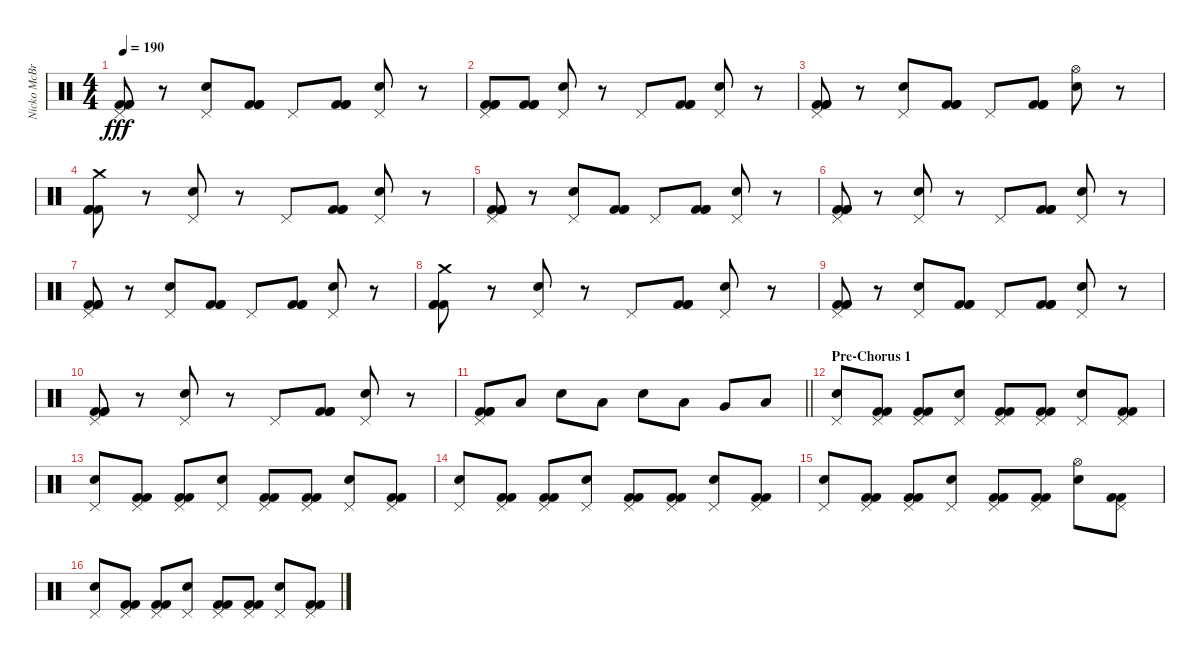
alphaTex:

\track ("Nicko McBrain" "Nicko McBr") {instrument percussion}
\staff {score}
\articulation defaults
\ts (4 4)
\tempo 190
\clef neutral
\ks c
("Pedal Hi-Hat (hit)" "Kick (hit) 2" "Kick (hit) 2" "Kick (hit) 2").8{dy fff} r.8 ("Snare (hit) 2" "Pedal Hi-Hat (hit)").8 ("Kick (hit) 2" "Kick (hit) 2" "Kick (hit) 2").8 "Pedal Hi-Hat (hit)".8 ("Kick (hit) 2" "Kick (hit) 2" "Kick (hit) 2").8 ("Snare (hit) 2" "Pedal Hi-Hat (hit)").8 r.8 |
("Pedal Hi-Hat (hit)" "Kick (hit) 2" "Kick (hit) 2" "Kick (hit) 2").8 ("Kick (hit) 2" "Kick (hit) 2" "Kick (hit) 2").8 ("Snare (hit) 2" "Pedal Hi-Hat (hit)").8 r.8 "Pedal Hi-Hat (hit)".8 ("Kick (hit) 2" "Kick (hit) 2" "Kick (hit) 2").8 ("Snare (hit) 2" "Pedal Hi-Hat (hit)").8 r.8 |
("Pedal Hi-Hat (hit)" "Kick (hit) 2" "Kick (hit) 2" "Kick (hit) 2").8 r.8 ("Snare (hit) 2" "Pedal Hi-Hat (hit)").8 ("Kick (hit) 2" "Kick (hit) 2" "Kick (hit) 2").8 "Pedal Hi-Hat (hit)".8 ("Kick (hit) 2" "Kick (hit) 2" "Kick (hit) 2").8 ("Snare (hit) 2" "Hi-Hat (open)").8 r.8 |
("Crash medium (hit)" "Kick (hit) 2" "Kick (hit) 2" "Kick (hit) 2").8 r.8 ("Snare (hit) 2" "Pedal Hi-Hat (hit)").8 r.8 "Pedal Hi-Hat (hit)".8 ("Kick (hit) 2" "Kick (hit) 2" "Kick (hit) 2").8 ("Snare (hit) 2" "Pedal Hi-Hat (hit)").8 r.8 |
("Pedal Hi-Hat (hit)" "Kick (hit) 2" "Kick (hit) 2" "Kick (hit) 2").8 r.8 ("Snare (hit) 2" "Pedal Hi-Hat (hit)").8 ("Kick (hit) 2" "Kick (hit) 2" "Kick (hit) 2").8 "Pedal Hi-Hat (hit)".8 ("Kick (hit) 2" "Kick (hit) 2" "Kick (hit) 2").8 ("Snare (hit) 2" "Pedal Hi-Hat (hit)").8 r.8 |
("Pedal Hi-Hat (hit)" "Kick (hit) 2" "Kick (hit) 2" "Kick (hit) 2").8 r.8 ("Snare (hit) 2" "Pedal Hi-Hat (hit)").8 r.8 "Pedal Hi-Hat (hit)".8 ("Kick (hit) 2" "Kick (hit) 2" "Kick (hit) 2").8 ("Snare (hit) 2" "Pedal Hi-Hat (hit)").8 r.8 |
("Pedal Hi-Hat (hit)" "Kick (hit) 2" "Kick (hit) 2" "Kick (hit) 2").8 r.8 ("Snare (hit) 2" "Pedal Hi-Hat (hit)").8 ("Kick (hit) 2" "Kick (hit) 2" "Kick (hit) 2").8 "Pedal Hi-Hat (hit)".8 ("Kick (hit) 2" "Kick (hit) 2" "Kick (hit) 2").8 ("Snare (hit) 2" "Pedal Hi-Hat (hit)").8 r.8 |
("Crash medium (hit)" "Kick (hit) 2" "Kick (hit) 2" "Kick (hit) 2").8 r.8 ("Snare (hit) 2" "Pedal Hi-Hat (hit)").8 r.8 "Pedal Hi-Hat (hit)".8 ("Kick (hit) 2" "Kick (hit) 2" "Kick (hit) 2").8 ("Snare (hit) 2" "Pedal Hi-Hat (hit)").8 r.8 |
("Pedal Hi-Hat (hit)" "Kick (hit) 2" "Kick (hit) 2" "Kick (hit) 2").8 r.8 ("Snare (hit) 2" "Pedal Hi-Hat (hit)").8 ("Kick (hit) 2" "Kick (hit) 2" "Kick (hit) 2").8 "Pedal Hi-Hat (hit)".8 ("Kick (hit) 2" "Kick (hit) 2" "Kick (hit) 2").8 ("Snare (hit) 2" "Pedal Hi-Hat (hit)").8 r.8 |
("Pedal Hi-Hat (hit)" "Kick (hit) 2" "Kick (hit) 2" "Kick (hit) 2").8 r.8 ("Snare (hit) 2" "Pedal Hi-Hat (hit)").8 r.8 "Pedal Hi-Hat (hit)".8 ("Kick (hit) 2" "Kick (hit) 2" "Kick (hit) 2").8 ("Snare (hit) 2" "Pedal Hi-Hat (hit)").8 r.8 |
\barLineRight lightlight
("Pedal Hi-Hat (hit)" "Kick (hit) 2" "Kick (hit) 2" "Kick (hit) 2").8 "Low Tom (hit)".8 "Snare (hit) 2".8 "Low Tom (hit)".8 "Snare (hit) 2".8 "Low Tom (hit)".8 "Very Low Tom (hit)".8 "Low Floor Tom (hit)".8 |
\section ("" "Pre-Chorus 1")
("Snare (hit) 2" "Pedal Hi-Hat (hit)").8 ("Pedal Hi-Hat (hit)" "Kick (hit) 2" "Kick (hit) 2").8 ("Pedal Hi-Hat (hit)" "Kick (hit) 2" "Kick (hit) 2").8 ("Snare (hit) 2" "Pedal Hi-Hat (hit)").8 ("Pedal Hi-Hat (hit)" "Kick (hit) 2" "Kick (hit) 2").8 ("Pedal Hi-Hat (hit)" "Kick (hit) 2" "Kick (hit) 2").8 ("Snare (hit) 2" "Pedal Hi-Hat (hit)").8 ("Pedal Hi-Hat (hit)" "Kick (hit) 2" "Kick (hit) 2").8 |
("Snare (hit) 2" "Pedal Hi-Hat (hit)").8 ("Pedal Hi-Hat (hit)" "Kick (hit) 2" "Kick (hit) 2").8 ("Pedal Hi-Hat (hit)" "Kick (hit) 2" "Kick (hit) 2").8 ("Snare (hit) 2" "Pedal Hi-Hat (hit)").8 ("Pedal Hi-Hat (hit)" "Kick (hit) 2" "Kick (hit) 2").8 ("Pedal Hi-Hat (hit)" "Kick (hit) 2" "Kick (hit) 2").8 ("Snare (hit) 2" "Pedal Hi-Hat (hit)").8 ("Pedal Hi-Hat (hit)" "Kick (hit) 2" "Kick (hit) 2").8 |
("Snare (hit) 2" "Pedal Hi-Hat (hit)").8 ("Pedal Hi-Hat (hit)" "Kick (hit) 2" "Kick (hit) 2").8 ("Pedal Hi-Hat (hit)" "Kick (hit) 2" "Kick (hit) 2").8 ("Snare (hit) 2" "Pedal Hi-Hat (hit)").8 ("Pedal Hi-Hat (hit)" "Kick (hit) 2" "Kick (hit) 2").8 ("Pedal Hi-Hat (hit)" "Kick (hit) 2" "Kick (hit) 2").8 ("Snare (hit) 2" "Pedal Hi-Hat (hit)").8 ("Pedal Hi-Hat (hit)" "Kick (hit) 2" "Kick (hit) 2").8 |
("Snare (hit) 2" "Pedal Hi-Hat (hit)").8 ("Pedal Hi-Hat (hit)" "Kick (hit) 2" "Kick (hit) 2").8 ("Pedal Hi-Hat (hit)" "Kick (hit) 2" "Kick (hit) 2").8 ("Snare (hit) 2" "Pedal Hi-Hat (hit)").8 ("Pedal Hi-Hat (hit)" "Kick (hit) 2" "Kick (hit) 2").8 ("Pedal Hi-Hat (hit)" "Kick (hit) 2" "Kick (hit) 2").8 ("Snare (hit) 2" "Hi-Hat (open)").8 ("Pedal Hi-Hat (hit)" "Kick (hit) 2" "Kick (hit) 2").8 |
("Snare (hit) 2" "Pedal Hi-Hat (hit)").8 ("Pedal Hi-Hat (hit)" "Kick (hit) 2" "Kick (hit) 2").8 ("Pedal Hi-Hat (hit)" "Kick (hit) 2" "Kick (hit) 2").8 ("Snare (hit) 2" "Pedal Hi-Hat (hit)").8 ("Pedal Hi-Hat (hit)" "Kick (hit) 2" "Kick (hit) 2").8 ("Pedal Hi-Hat (hit)" "Kick (hit) 2" "Kick (hit) 2").8 ("Snare (hit) 2" "Pedal Hi-Hat (hit)").8 ("Pedal Hi-Hat (hit)" "Kick (hit) 2" "Kick (hit) 2").8
